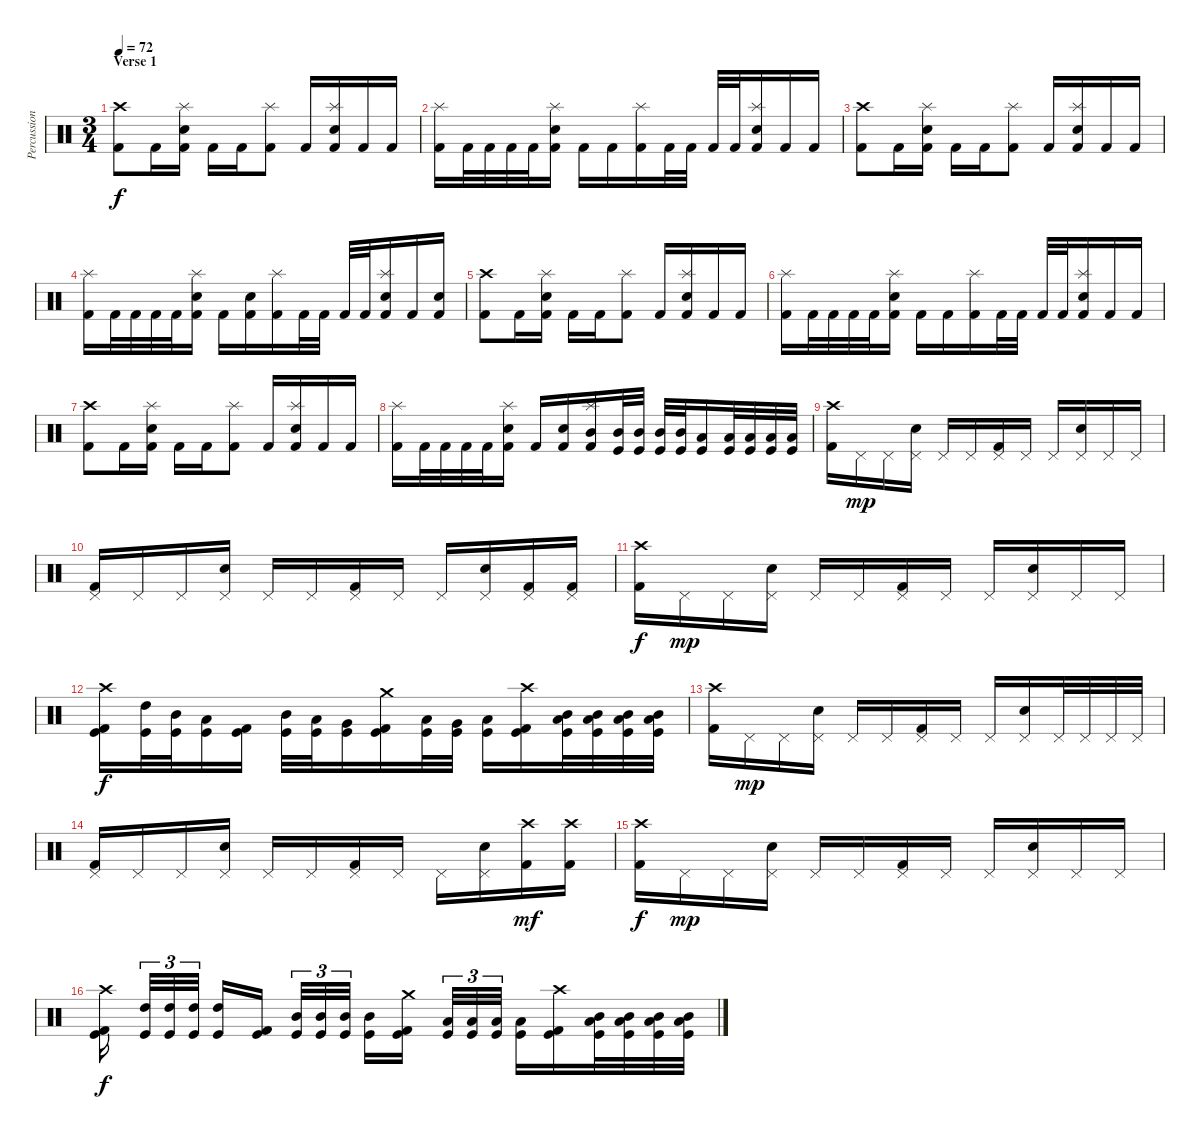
\track ("Percussion" "Percussion") {instrument percussion}
\staff {score}
\articulation defaults
\ts (3 4)
\section ("" "Verse 1")
\tempo 72
\clef neutral
\ks c
("Crash high (hit)" "Kick (hit) 2").8{dy f} "Kick (hit) 2".16 ("Splash (hit)" "Electric Snare (hit)" "Kick (hit) 2").16 "Kick (hit) 2".16 "Kick (hit) 2".16 ("Splash (hit)" "Kick (hit) 2").8 "Kick (hit) 2".16 ("Splash (hit)" "Electric Snare (hit)" "Kick (hit) 2").16 "Kick (hit) 2".16 "Kick (hit) 2".16 |
("Splash (hit)" "Kick (hit) 2").16 "Kick (hit) 2".32 "Kick (hit) 2".32 "Kick (hit) 2".32 "Kick (hit) 2".32 ("Splash (hit)" "Electric Snare (hit)" "Kick (hit) 2").16 "Kick (hit) 2".16 "Kick (hit) 2".16 ("Splash (hit)" "Kick (hit) 2").16 "Kick (hit) 2".32 "Kick (hit) 2".32 "Kick (hit) 2".32 "Kick (hit) 2".32 ("Splash (hit)" "Electric Snare (hit)" "Kick (hit) 2").16 "Kick (hit) 2".16 "Kick (hit) 2".16 |
("Crash high (hit)" "Kick (hit) 2").8 "Kick (hit) 2".16 ("Splash (hit)" "Electric Snare (hit)" "Kick (hit) 2").16 "Kick (hit) 2".16 "Kick (hit) 2".16 ("Splash (hit)" "Kick (hit) 2").8 "Kick (hit) 2".16 ("Splash (hit)" "Electric Snare (hit)" "Kick (hit) 2").16 "Kick (hit) 2".16 "Kick (hit) 2".16 |
("Splash (hit)" "Kick (hit) 2").16 "Kick (hit) 2".32 "Kick (hit) 2".32 "Kick (hit) 2".32 "Kick (hit) 2".32 ("Splash (hit)" "Electric Snare (hit)" "Kick (hit) 2").16 "Kick (hit) 2".16 ("Electric Snare (hit)" "Kick (hit) 2").16 ("Splash (hit)" "Kick (hit) 2").16 "Kick (hit) 2".32 "Kick (hit) 2".32 "Kick (hit) 2".32 "Kick (hit) 2".32 ("Splash (hit)" "Electric Snare (hit)" "Kick (hit) 2").16 "Kick (hit) 2".16 ("Electric Snare (hit)" "Kick (hit) 2").16 |
("Crash high (hit)" "Kick (hit) 2").8 "Kick (hit) 2".16 ("Splash (hit)" "Electric Snare (hit)" "Kick (hit) 2").16 "Kick (hit) 2".16 "Kick (hit) 2".16 ("Splash (hit)" "Kick (hit) 2").8 "Kick (hit) 2".16 ("Splash (hit)" "Electric Snare (hit)" "Kick (hit) 2").16 "Kick (hit) 2".16 "Kick (hit) 2".16 |
("Splash (hit)" "Kick (hit) 2").16 "Kick (hit) 2".32 "Kick (hit) 2".32 "Kick (hit) 2".32 "Kick (hit) 2".32 ("Splash (hit)" "Electric Snare (hit)" "Kick (hit) 2").16 "Kick (hit) 2".16 "Kick (hit) 2".16 ("Splash (hit)" "Kick (hit) 2").16 "Kick (hit) 2".32 "Kick (hit) 2".32 "Kick (hit) 2".32 "Kick (hit) 2".32 ("Splash (hit)" "Electric Snare (hit)" "Kick (hit) 2").16 "Kick (hit) 2".16 "Kick (hit) 2".16 |
("Crash high (hit)" "Kick (hit) 2").8 "Kick (hit) 2".16 ("Splash (hit)" "Electric Snare (hit)" "Kick (hit) 2").16 "Kick (hit) 2".16 "Kick (hit) 2".16 ("Splash (hit)" "Kick (hit) 2").8 "Kick (hit) 2".16 ("Splash (hit)" "Electric Snare (hit)" "Kick (hit) 2").16 "Kick (hit) 2".16 "Kick (hit) 2".16 |
("Splash (hit)" "Kick (hit) 2").16 "Kick (hit) 2".32 "Kick (hit) 2".32 "Kick (hit) 2".32 "Kick (hit) 2".32 ("Splash (hit)" "Electric Snare (hit)" "Kick (hit) 2").16 "Kick (hit) 2".16 ("Electric Snare (hit)" "Kick (hit) 2").16 ("Splash (hit)" "Mid Tom (hit)" "Kick (hit) 2").16 ("Mid Tom (hit)" "Kick (hit)").32 ("Mid Tom (hit)" "Kick (hit)").32 ("Mid Tom (hit)" "Kick (hit)").32 ("Mid Tom (hit)" "Kick (hit)").32 ("Low Tom (hit)" "Kick (hit)").16 ("Low Tom (hit)" "Kick (hit)").32 ("Low Tom (hit)" "Kick (hit)").32 ("Low Tom (hit)" "Kick (hit)").32 ("Low Tom (hit)" "Kick (hit)").32 |
("Crash high (hit)" "Kick (hit) 2").16 "Pedal Hi-Hat (hit)".16{dy mp} "Pedal Hi-Hat (hit)".16 ("Pedal Hi-Hat (hit)" "Electric Snare (hit)").16 "Pedal Hi-Hat (hit)".16 "Pedal Hi-Hat (hit)".16 ("Pedal Hi-Hat (hit)" "Kick (hit) 2").16 "Pedal Hi-Hat (hit)".16 "Pedal Hi-Hat (hit)".16 ("Pedal Hi-Hat (hit)" "Electric Snare (hit)").16 "Pedal Hi-Hat (hit)".16 "Pedal Hi-Hat (hit)".16 |
("Pedal Hi-Hat (hit)" "Kick (hit) 2").16 "Pedal Hi-Hat (hit)".16 "Pedal Hi-Hat (hit)".16 ("Pedal Hi-Hat (hit)" "Electric Snare (hit)").16 "Pedal Hi-Hat (hit)".16 "Pedal Hi-Hat (hit)".16 ("Pedal Hi-Hat (hit)" "Kick (hit) 2").16 "Pedal Hi-Hat (hit)".16 "Pedal Hi-Hat (hit)".16 ("Pedal Hi-Hat (hit)" "Electric Snare (hit)").16 ("Pedal Hi-Hat (hit)" "Kick (hit) 2").16 ("Pedal Hi-Hat (hit)" "Kick (hit) 2").16 |
("Crash high (hit)" "Kick (hit) 2").16{dy f} "Pedal Hi-Hat (hit)".16{dy mp} "Pedal Hi-Hat (hit)".16 ("Pedal Hi-Hat (hit)" "Electric Snare (hit)").16 "Pedal Hi-Hat (hit)".16 "Pedal Hi-Hat (hit)".16 ("Pedal Hi-Hat (hit)" "Kick (hit) 2").16 "Pedal Hi-Hat (hit)".16 "Pedal Hi-Hat (hit)".16 ("Pedal Hi-Hat (hit)" "Electric Snare (hit)").16 "Pedal Hi-Hat (hit)".16 "Pedal Hi-Hat (hit)".16 |
("Crash high (hit)" "Kick (hit) 2" "Kick (hit)").16{dy f} ("High Tom (hit)" "Kick (hit)").32 ("Mid Tom (hit)" "Kick (hit)").32 ("Low Tom (hit)" "Kick (hit)").16 ("Kick (hit) 2" "Kick (hit)").16 ("Mid Tom (hit)" "Kick (hit)").32 ("Low Tom (hit)" "Kick (hit)").32 ("Very Low Tom (hit)" "Kick (hit)").16 ("Crash medium (hit)" "Kick (hit) 2" "Kick (hit)").16 ("Low Tom (hit)" "Kick (hit)").32 ("Very Low Tom (hit)" "Kick (hit)").32 ("Low Floor Tom (hit)" "Kick (hit)").16 ("Crash high (hit)" "Kick (hit) 2" "Kick (hit)").16 ("Mid Tom (hit)" "Low Tom (hit)" "Kick (hit)").32 ("Mid Tom (hit)" "Low Tom (hit)" "Kick (hit)").32 ("Mid Tom (hit)" "Low Tom (hit)" "Kick (hit)").32 ("Mid Tom (hit)" "Low Tom (hit)" "Kick (hit)").32 |
("Crash high (hit)" "Kick (hit) 2").16 "Pedal Hi-Hat (hit)".16{dy mp} "Pedal Hi-Hat (hit)".16 ("Pedal Hi-Hat (hit)" "Electric Snare (hit)").16 "Pedal Hi-Hat (hit)".16 "Pedal Hi-Hat (hit)".16 ("Pedal Hi-Hat (hit)" "Kick (hit) 2").16 "Pedal Hi-Hat (hit)".16 "Pedal Hi-Hat (hit)".16 ("Pedal Hi-Hat (hit)" "Electric Snare (hit)").16 "Pedal Hi-Hat (hit)".32 "Pedal Hi-Hat (hit)".32 "Pedal Hi-Hat (hit)".32 "Pedal Hi-Hat (hit)".32 |
("Pedal Hi-Hat (hit)" "Kick (hit) 2").16 "Pedal Hi-Hat (hit)".16 "Pedal Hi-Hat (hit)".16 ("Pedal Hi-Hat (hit)" "Electric Snare (hit)").16 "Pedal Hi-Hat (hit)".16 "Pedal Hi-Hat (hit)".16 ("Pedal Hi-Hat (hit)" "Kick (hit) 2").16 "Pedal Hi-Hat (hit)".16 "Pedal Hi-Hat (hit)".16 ("Pedal Hi-Hat (hit)" "Electric Snare (hit)").16 ("Crash high (hit)" "Kick (hit) 2").16{dy mf} ("Crash high (hit)" "Kick (hit) 2").16 |
("Crash high (hit)" "Kick (hit) 2").16{dy f} "Pedal Hi-Hat (hit)".16{dy mp} "Pedal Hi-Hat (hit)".16 ("Pedal Hi-Hat (hit)" "Electric Snare (hit)").16 "Pedal Hi-Hat (hit)".16 "Pedal Hi-Hat (hit)".16 ("Pedal Hi-Hat (hit)" "Kick (hit) 2").16 "Pedal Hi-Hat (hit)".16 "Pedal Hi-Hat (hit)".16 ("Pedal Hi-Hat (hit)" "Electric Snare (hit)").16 "Pedal Hi-Hat (hit)".16 "Pedal Hi-Hat (hit)".16 |
("Crash high (hit)" "Kick (hit) 2" "Kick (hit)").16{dy f} ("High Tom (hit)" "Kick (hit)").32{tu (3 2)} ("High Tom (hit)" "Kick (hit)").32{tu (3 2)} ("High Tom (hit)" "Kick (hit)").32{tu (3 2)} ("High Tom (hit)" "Kick (hit)").16 ("Kick (hit) 2" "Kick (hit)").16 ("Mid Tom (hit)" "Kick (hit)").32{tu (3 2)} ("Mid Tom (hit)" "Kick (hit)").32{tu (3 2)} ("Mid Tom (hit)" "Kick (hit)").32{tu (3 2)} ("Mid Tom (hit)" "Kick (hit)").16 ("Crash medium (hit)" "Kick (hit) 2" "Kick (hit)").16 ("Low Tom (hit)" "Kick (hit)").32{tu (3 2)} ("Low Tom (hit)" "Kick (hit)").32{tu (3 2)} ("Low Tom (hit)" "Kick (hit)").32{tu (3 2)} ("Low Tom (hit)" "Kick (hit)").16 ("Crash high (hit)" "Kick (hit) 2" "Kick (hit)").16 ("Mid Tom (hit)" "Low Tom (hit)" "Kick (hit)").32 ("Mid Tom (hit)" "Low Tom (hit)" "Kick (hit)").32 ("Mid Tom (hit)" "Low Tom (hit)" "Kick (hit)").32 ("Mid Tom (hit)" "Low Tom (hit)" "Kick (hit)").32
